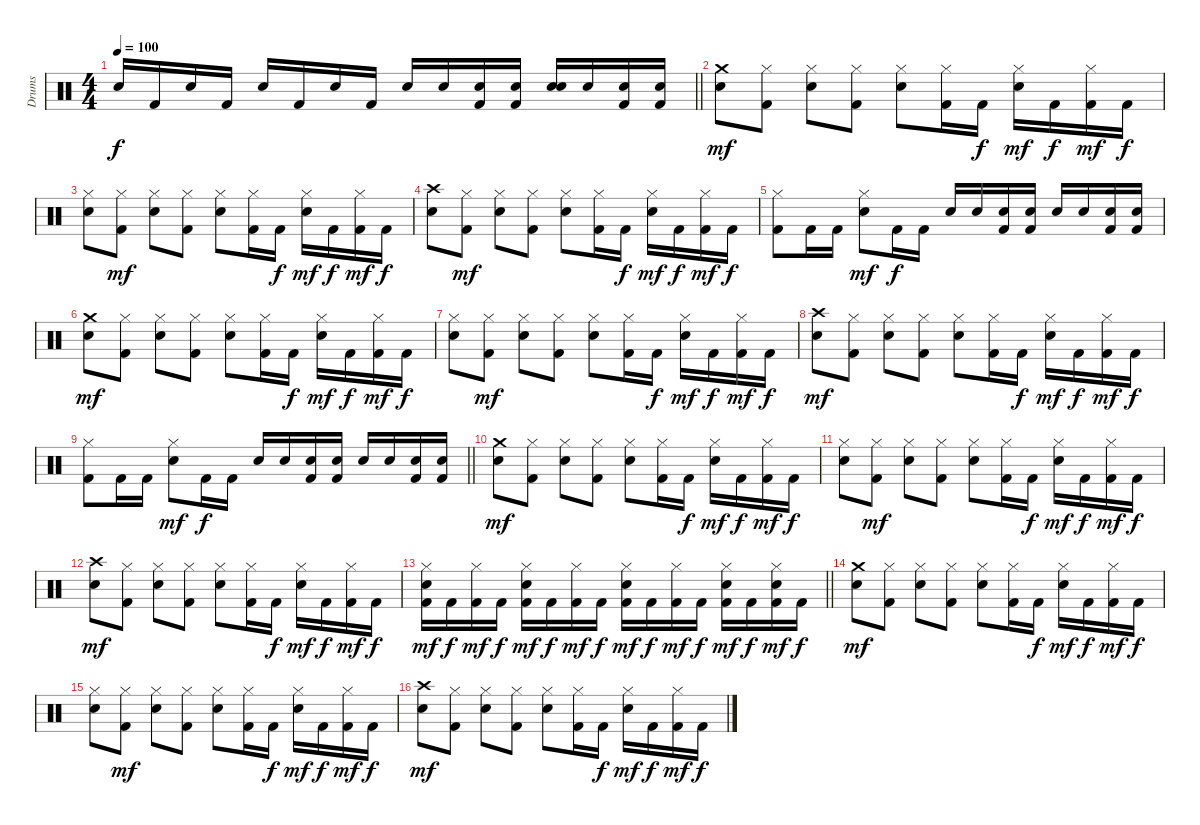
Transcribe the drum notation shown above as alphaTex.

\track ("Drums" "Drums") {instrument percussion}
\staff {score}
\articulation defaults
\ts (4 4)
\tempo 100
\clef neutral
\barLineRight lightlight
\ks c "Snare (hit) 2".16{dy f} "Kick (hit) 2".16 "Snare (hit) 2".16 "Kick (hit) 2".16 "Snare (hit) 2".16 "Kick (hit) 2".16 "Snare (hit) 2".16 "Kick (hit) 2".16 "Snare (hit) 2".16 "Snare (hit) 2".16
("Snare (hit) 2" "Kick (hit) 2").16 ("Snare (hit) 2" "Kick (hit) 2").16 ("Snare (hit) 2" "Snare (hit)").16 "Snare (hit) 2".16 ("Snare (hit) 2" "Kick (hit) 2").16 ("Snare (hit) 2" "Kick (hit) 2").16 |
("Crash medium (hit)" "Snare (hit) 2").8{dy mf} ("Hi-Hat (closed)" "Kick (hit) 2").8 ("Hi-Hat (closed)" "Snare (hit) 2").8 ("Hi-Hat (closed)" "Kick (hit) 2").8 ("Hi-Hat (closed)" "Snare (hit) 2").8 ("Hi-Hat (closed)" "Kick (hit) 2").16 "Kick (hit) 2".16{dy f} ("Hi-Hat (closed)" "Snare (hit) 2").16{dy mf} "Kick (hit) 2".16{dy f} ("Hi-Hat (closed)" "Kick (hit) 2").16{dy mf} "Kick (hit) 2".16{dy f} |
("Hi-Hat (closed)" "Snare (hit) 2").8 ("Hi-Hat (closed)" "Kick (hit) 2").8{dy mf} ("Hi-Hat (closed)" "Snare (hit) 2").8 ("Hi-Hat (closed)" "Kick (hit) 2").8 ("Hi-Hat (closed)" "Snare (hit) 2").8 ("Hi-Hat (closed)" "Kick (hit) 2").16 "Kick (hit) 2".16{dy f} ("Hi-Hat (closed)" "Snare (hit) 2").16{dy mf} "Kick (hit) 2".16{dy f} ("Hi-Hat (closed)" "Kick (hit) 2").16{dy mf} "Kick (hit) 2".16{dy f} |
("Crash high (hit)" "Snare (hit) 2").8 ("Hi-Hat (closed)" "Kick (hit) 2").8{dy mf} ("Hi-Hat (closed)" "Snare (hit) 2").8 ("Hi-Hat (closed)" "Kick (hit) 2").8 ("Hi-Hat (closed)" "Snare (hit) 2").8 ("Hi-Hat (closed)" "Kick (hit) 2").16 "Kick (hit) 2".16{dy f} ("Hi-Hat (closed)" "Snare (hit) 2").16{dy mf} "Kick (hit) 2".16{dy f} ("Hi-Hat (closed)" "Kick (hit) 2").16{dy mf} "Kick (hit) 2".16{dy f} |
("Hi-Hat (closed)" "Kick (hit) 2").8 "Kick (hit) 2".16 "Kick (hit) 2".16 ("Hi-Hat (closed)" "Snare (hit) 2").8{dy mf} "Kick (hit) 2".16{dy f} "Kick (hit) 2".16 "Snare (hit) 2".16 "Snare (hit) 2".16 ("Snare (hit) 2" "Kick (hit) 2").16 ("Snare (hit) 2" "Kick (hit) 2").16 "Snare (hit) 2".16 "Snare (hit) 2".16 ("Snare (hit) 2" "Kick (hit) 2").16 ("Snare (hit) 2" "Kick (hit) 2").16 |
("Crash medium (hit)" "Snare (hit) 2").8{dy mf} ("Hi-Hat (closed)" "Kick (hit) 2").8 ("Hi-Hat (closed)" "Snare (hit) 2").8 ("Hi-Hat (closed)" "Kick (hit) 2").8 ("Hi-Hat (closed)" "Snare (hit) 2").8 ("Hi-Hat (closed)" "Kick (hit) 2").16 "Kick (hit) 2".16{dy f} ("Hi-Hat (closed)" "Snare (hit) 2").16{dy mf} "Kick (hit) 2".16{dy f} ("Hi-Hat (closed)" "Kick (hit) 2").16{dy mf} "Kick (hit) 2".16{dy f} |
("Hi-Hat (closed)" "Snare (hit) 2").8 ("Hi-Hat (closed)" "Kick (hit) 2").8{dy mf} ("Hi-Hat (closed)" "Snare (hit) 2").8 ("Hi-Hat (closed)" "Kick (hit) 2").8 ("Hi-Hat (closed)" "Snare (hit) 2").8 ("Hi-Hat (closed)" "Kick (hit) 2").16 "Kick (hit) 2".16{dy f} ("Hi-Hat (closed)" "Snare (hit) 2").16{dy mf} "Kick (hit) 2".16{dy f} ("Hi-Hat (closed)" "Kick (hit) 2").16{dy mf} "Kick (hit) 2".16{dy f} |
("Crash high (hit)" "Snare (hit) 2").8{dy mf} ("Hi-Hat (closed)" "Kick (hit) 2").8 ("Hi-Hat (closed)" "Snare (hit) 2").8 ("Hi-Hat (closed)" "Kick (hit) 2").8 ("Hi-Hat (closed)" "Snare (hit) 2").8 ("Hi-Hat (closed)" "Kick (hit) 2").16 "Kick (hit) 2".16{dy f} ("Hi-Hat (closed)" "Snare (hit) 2").16{dy mf} "Kick (hit) 2".16{dy f} ("Hi-Hat (closed)" "Kick (hit) 2").16{dy mf} "Kick (hit) 2".16{dy f} |
\barLineRight lightlight
("Hi-Hat (closed)" "Kick (hit) 2").8 "Kick (hit) 2".16 "Kick (hit) 2".16 ("Hi-Hat (closed)" "Snare (hit) 2").8{dy mf} "Kick (hit) 2".16{dy f} "Kick (hit) 2".16 "Snare (hit) 2".16 "Snare (hit) 2".16 ("Snare (hit) 2" "Kick (hit) 2").16 ("Snare (hit) 2" "Kick (hit) 2").16 "Snare (hit) 2".16 "Snare (hit) 2".16 ("Snare (hit) 2" "Kick (hit) 2").16 ("Snare (hit) 2" "Kick (hit) 2").16 |
("Crash medium (hit)" "Snare (hit) 2").8{dy mf} ("Hi-Hat (closed)" "Kick (hit) 2").8 ("Hi-Hat (closed)" "Snare (hit) 2").8 ("Hi-Hat (closed)" "Kick (hit) 2").8 ("Hi-Hat (closed)" "Snare (hit) 2").8 ("Hi-Hat (closed)" "Kick (hit) 2").16 "Kick (hit) 2".16{dy f} ("Hi-Hat (closed)" "Snare (hit) 2").16{dy mf} "Kick (hit) 2".16{dy f} ("Hi-Hat (closed)" "Kick (hit) 2").16{dy mf} "Kick (hit) 2".16{dy f} |
("Hi-Hat (closed)" "Snare (hit) 2").8 ("Hi-Hat (closed)" "Kick (hit) 2").8{dy mf} ("Hi-Hat (closed)" "Snare (hit) 2").8 ("Hi-Hat (closed)" "Kick (hit) 2").8 ("Hi-Hat (closed)" "Snare (hit) 2").8 ("Hi-Hat (closed)" "Kick (hit) 2").16 "Kick (hit) 2".16{dy f} ("Hi-Hat (closed)" "Snare (hit) 2").16{dy mf} "Kick (hit) 2".16{dy f} ("Hi-Hat (closed)" "Kick (hit) 2").16{dy mf} "Kick (hit) 2".16{dy f} |
("Crash high (hit)" "Snare (hit) 2").8{dy mf} ("Hi-Hat (closed)" "Kick (hit) 2").8 ("Hi-Hat (closed)" "Snare (hit) 2").8 ("Hi-Hat (closed)" "Kick (hit) 2").8 ("Hi-Hat (closed)" "Snare (hit) 2").8 ("Hi-Hat (closed)" "Kick (hit) 2").16 "Kick (hit) 2".16{dy f} ("Hi-Hat (closed)" "Snare (hit) 2").16{dy mf} "Kick (hit) 2".16{dy f} ("Hi-Hat (closed)" "Kick (hit) 2").16{dy mf} "Kick (hit) 2".16{dy f} |
\barLineRight lightlight
("Hi-Hat (closed)" "Snare (hit) 2" "Kick (hit) 2").16{dy mf} "Kick (hit) 2".16{dy f} ("Hi-Hat (closed)" "Kick (hit) 2").16{dy mf} "Kick (hit) 2".16{dy f} ("Hi-Hat (closed)" "Snare (hit) 2" "Kick (hit) 2").16{dy mf} "Kick (hit) 2".16{dy f} ("Hi-Hat (closed)" "Kick (hit) 2").16{dy mf} "Kick (hit) 2".16{dy f} ("Hi-Hat (closed)" "Snare (hit) 2" "Kick (hit) 2").16{dy mf} "Kick (hit) 2".16{dy f} ("Hi-Hat (closed)" "Kick (hit) 2").16{dy mf} "Kick (hit) 2".16{dy f} ("Hi-Hat (closed)" "Snare (hit) 2" "Kick (hit) 2").16{dy mf} "Kick (hit) 2".16{dy f} ("Hi-Hat (closed)" "Snare (hit) 2" "Kick (hit) 2").16{dy mf} "Kick (hit) 2".16{dy f} |
("Crash medium (hit)" "Snare (hit) 2").8{dy mf} ("Hi-Hat (closed)" "Kick (hit) 2").8 ("Hi-Hat (closed)" "Snare (hit) 2").8 ("Hi-Hat (closed)" "Kick (hit) 2").8 ("Hi-Hat (closed)" "Snare (hit) 2").8 ("Hi-Hat (closed)" "Kick (hit) 2").16 "Kick (hit) 2".16{dy f} ("Hi-Hat (closed)" "Snare (hit) 2").16{dy mf} "Kick (hit) 2".16{dy f} ("Hi-Hat (closed)" "Kick (hit) 2").16{dy mf} "Kick (hit) 2".16{dy f} |
("Hi-Hat (closed)" "Snare (hit) 2").8 ("Hi-Hat (closed)" "Kick (hit) 2").8{dy mf} ("Hi-Hat (closed)" "Snare (hit) 2").8 ("Hi-Hat (closed)" "Kick (hit) 2").8 ("Hi-Hat (closed)" "Snare (hit) 2").8 ("Hi-Hat (closed)" "Kick (hit) 2").16 "Kick (hit) 2".16{dy f} ("Hi-Hat (closed)" "Snare (hit) 2").16{dy mf} "Kick (hit) 2".16{dy f} ("Hi-Hat (closed)" "Kick (hit) 2").16{dy mf} "Kick (hit) 2".16{dy f} |
("Crash high (hit)" "Snare (hit) 2").8{dy mf} ("Hi-Hat (closed)" "Kick (hit) 2").8 ("Hi-Hat (closed)" "Snare (hit) 2").8 ("Hi-Hat (closed)" "Kick (hit) 2").8 ("Hi-Hat (closed)" "Snare (hit) 2").8 ("Hi-Hat (closed)" "Kick (hit) 2").16 "Kick (hit) 2".16{dy f} ("Hi-Hat (closed)" "Snare (hit) 2").16{dy mf} "Kick (hit) 2".16{dy f} ("Hi-Hat (closed)" "Kick (hit) 2").16{dy mf} "Kick (hit) 2".16{dy f}
